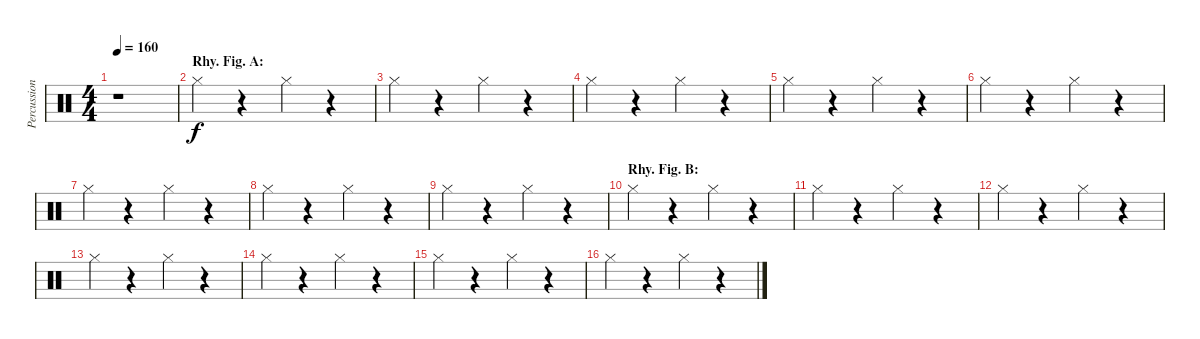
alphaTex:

\track ("Percussion" "Percussion") {instrument percussion}
\staff {score}
\articulation defaults
\ts (4 4)
\tempo 160
\clef neutral
\ks c
r.1{dy f} |
\section ("" "Rhy. Fig. A:")
"Hi-Hat (closed)".4 r.4 "Hi-Hat (closed)".4 r.4 |
"Hi-Hat (closed)".4 r.4 "Hi-Hat (closed)".4 r.4 |
"Hi-Hat (closed)".4 r.4 "Hi-Hat (closed)".4 r.4 |
"Hi-Hat (closed)".4 r.4 "Hi-Hat (closed)".4 r.4 |
"Hi-Hat (closed)".4 r.4 "Hi-Hat (closed)".4 r.4 |
"Hi-Hat (closed)".4 r.4 "Hi-Hat (closed)".4 r.4 |
"Hi-Hat (closed)".4 r.4 "Hi-Hat (closed)".4 r.4 |
"Hi-Hat (closed)".4 r.4 "Hi-Hat (closed)".4 r.4 |
\section ("" "Rhy. Fig. B:")
"Hi-Hat (closed)".4 r.4 "Hi-Hat (closed)".4 r.4 |
"Hi-Hat (closed)".4 r.4 "Hi-Hat (closed)".4 r.4 |
"Hi-Hat (closed)".4 r.4 "Hi-Hat (closed)".4 r.4 |
"Hi-Hat (closed)".4 r.4 "Hi-Hat (closed)".4 r.4 |
"Hi-Hat (closed)".4 r.4 "Hi-Hat (closed)".4 r.4 |
"Hi-Hat (closed)".4 r.4 "Hi-Hat (closed)".4 r.4 |
"Hi-Hat (closed)".4 r.4 "Hi-Hat (closed)".4 r.4
